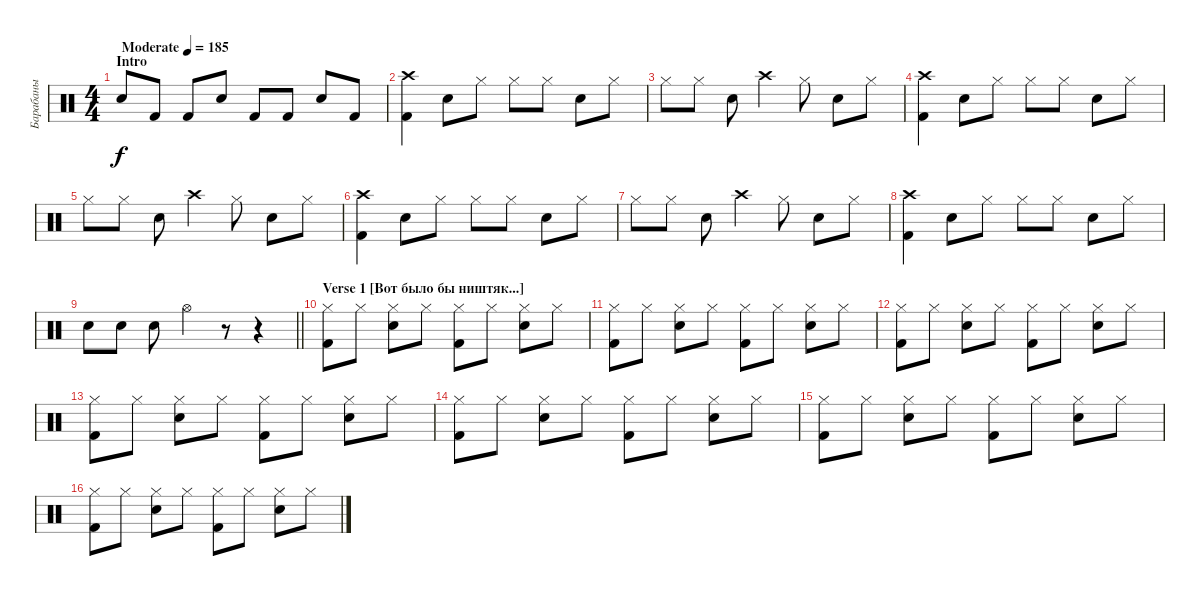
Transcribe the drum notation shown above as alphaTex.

\track ("Барабаны" "Барабаны") {instrument percussion}
\staff {score}
\articulation defaults
\ts (4 4)
\section ("" "Intro")
\tempo (185 "Moderate")
\clef neutral
\ks c "Snare (hit) 2".8{dy f} "Kick (hit) 2".8 "Kick (hit) 2".8 "Snare (hit) 2".8 "Kick (hit) 2".8 "Kick (hit) 2".8 "Snare (hit) 2".8 "Kick (hit) 2".8
|
("Crash high (hit)" "Kick (hit) 2").4 "Snare (hit) 2".8 "Hi-Hat (closed)".8 "Hi-Hat (closed)".8 "Hi-Hat (closed)".8 "Snare (hit) 2".8 "Hi-Hat (closed)".8 |
"Hi-Hat (closed)".8 "Hi-Hat (closed)".8 "Snare (hit) 2".8 "Crash high (hit)".4 "Hi-Hat (closed)".8 "Snare (hit) 2".8 "Hi-Hat (closed)".8 |
("Crash high (hit)" "Kick (hit) 2").4 "Snare (hit) 2".8 "Hi-Hat (closed)".8 "Hi-Hat (closed)".8 "Hi-Hat (closed)".8 "Snare (hit) 2".8 "Hi-Hat (closed)".8 |
"Hi-Hat (closed)".8 "Hi-Hat (closed)".8 "Snare (hit) 2".8 "Crash high (hit)".4 "Hi-Hat (closed)".8 "Snare (hit) 2".8 "Hi-Hat (closed)".8 |
("Crash high (hit)" "Kick (hit) 2").4 "Snare (hit) 2".8 "Hi-Hat (closed)".8 "Hi-Hat (closed)".8 "Hi-Hat (closed)".8 "Snare (hit) 2".8 "Hi-Hat (closed)".8 |
"Hi-Hat (closed)".8 "Hi-Hat (closed)".8 "Snare (hit) 2".8 "Crash high (hit)".4 "Hi-Hat (closed)".8 "Snare (hit) 2".8 "Hi-Hat (closed)".8 |
("Crash high (hit)" "Kick (hit) 2").4 "Snare (hit) 2".8 "Hi-Hat (closed)".8 "Hi-Hat (closed)".8 "Hi-Hat (closed)".8 "Snare (hit) 2".8 "Hi-Hat (closed)".8 |
\barLineRight lightlight "Snare (hit) 2".8 "Snare (hit) 2".8 "Snare (hit) 2".8 "Hi-Hat (open)".4
r.8 r.4 |
\section ("" "Verse 1 [Вот было бы ништяк...]")
("Hi-Hat (closed)" "Kick (hit) 2").8 "Hi-Hat (closed)".8 ("Hi-Hat (closed)" "Snare (hit) 2").8 "Hi-Hat (closed)".8 ("Hi-Hat (closed)" "Kick (hit) 2").8 "Hi-Hat (closed)".8 ("Hi-Hat (closed)" "Snare (hit) 2").8 "Hi-Hat (closed)".8 |
("Hi-Hat (closed)" "Kick (hit) 2").8 "Hi-Hat (closed)".8 ("Hi-Hat (closed)" "Snare (hit) 2").8 "Hi-Hat (closed)".8 ("Hi-Hat (closed)" "Kick (hit) 2").8 "Hi-Hat (closed)".8 ("Hi-Hat (closed)" "Snare (hit) 2").8 "Hi-Hat (closed)".8 |
("Hi-Hat (closed)" "Kick (hit) 2").8 "Hi-Hat (closed)".8 ("Hi-Hat (closed)" "Snare (hit) 2").8 "Hi-Hat (closed)".8 ("Hi-Hat (closed)" "Kick (hit) 2").8 "Hi-Hat (closed)".8 ("Hi-Hat (closed)" "Snare (hit) 2").8 "Hi-Hat (closed)".8 |
("Hi-Hat (closed)" "Kick (hit) 2").8 "Hi-Hat (closed)".8 ("Hi-Hat (closed)" "Snare (hit) 2").8 "Hi-Hat (closed)".8 ("Hi-Hat (closed)" "Kick (hit) 2").8 "Hi-Hat (closed)".8 ("Hi-Hat (closed)" "Snare (hit) 2").8 "Hi-Hat (closed)".8 |
("Hi-Hat (closed)" "Kick (hit) 2").8 "Hi-Hat (closed)".8 ("Hi-Hat (closed)" "Snare (hit) 2").8 "Hi-Hat (closed)".8 ("Hi-Hat (closed)" "Kick (hit) 2").8 "Hi-Hat (closed)".8 ("Hi-Hat (closed)" "Snare (hit) 2").8 "Hi-Hat (closed)".8 |
("Hi-Hat (closed)" "Kick (hit) 2").8 "Hi-Hat (closed)".8 ("Hi-Hat (closed)" "Snare (hit) 2").8 "Hi-Hat (closed)".8 ("Hi-Hat (closed)" "Kick (hit) 2").8 "Hi-Hat (closed)".8 ("Hi-Hat (closed)" "Snare (hit) 2").8 "Hi-Hat (closed)".8 |
("Hi-Hat (closed)" "Kick (hit) 2").8 "Hi-Hat (closed)".8 ("Hi-Hat (closed)" "Snare (hit) 2").8 "Hi-Hat (closed)".8 ("Hi-Hat (closed)" "Kick (hit) 2").8 "Hi-Hat (closed)".8 ("Hi-Hat (closed)" "Snare (hit) 2").8 "Hi-Hat (closed)".8
